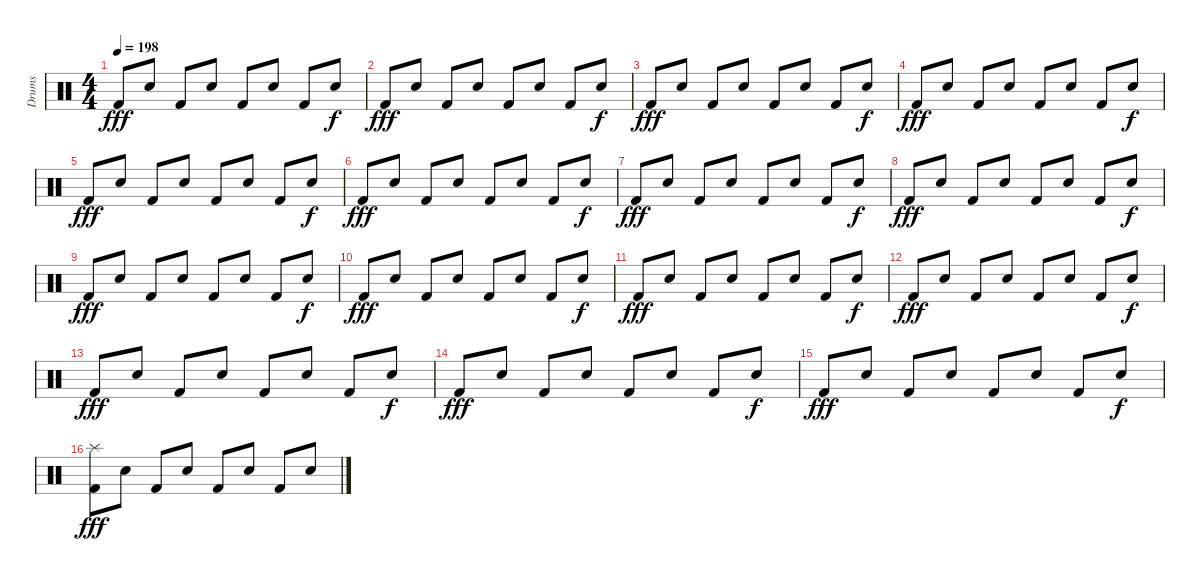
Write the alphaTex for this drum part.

\track ("Drums" "Drums") {instrument percussion}
\staff {score}
\articulation defaults
\ts (4 4)
\tempo 198
\clef neutral
\ks c "Kick (hit) 2".8{dy fff} "Snare (hit) 2".8 "Kick (hit) 2".8 "Snare (hit) 2".8 "Kick (hit) 2".8 "Snare (hit) 2".8 "Kick (hit) 2".8 "Snare (hit) 2".8{dy f}
|
"Kick (hit) 2".8{dy fff} "Snare (hit) 2".8 "Kick (hit) 2".8 "Snare (hit) 2".8 "Kick (hit) 2".8 "Snare (hit) 2".8 "Kick (hit) 2".8 "Snare (hit) 2".8{dy f} |
"Kick (hit) 2".8{dy fff} "Snare (hit) 2".8 "Kick (hit) 2".8 "Snare (hit) 2".8 "Kick (hit) 2".8 "Snare (hit) 2".8 "Kick (hit) 2".8 "Snare (hit) 2".8{dy f} |
"Kick (hit) 2".8{dy fff} "Snare (hit) 2".8 "Kick (hit) 2".8 "Snare (hit) 2".8 "Kick (hit) 2".8 "Snare (hit) 2".8 "Kick (hit) 2".8 "Snare (hit) 2".8{dy f} |
"Kick (hit) 2".8{dy fff} "Snare (hit) 2".8 "Kick (hit) 2".8 "Snare (hit) 2".8 "Kick (hit) 2".8 "Snare (hit) 2".8 "Kick (hit) 2".8 "Snare (hit) 2".8{dy f} |
"Kick (hit) 2".8{dy fff} "Snare (hit) 2".8 "Kick (hit) 2".8 "Snare (hit) 2".8 "Kick (hit) 2".8 "Snare (hit) 2".8 "Kick (hit) 2".8 "Snare (hit) 2".8{dy f} |
"Kick (hit) 2".8{dy fff} "Snare (hit) 2".8 "Kick (hit) 2".8 "Snare (hit) 2".8 "Kick (hit) 2".8 "Snare (hit) 2".8 "Kick (hit) 2".8 "Snare (hit) 2".8{dy f} |
"Kick (hit) 2".8{dy fff} "Snare (hit) 2".8 "Kick (hit) 2".8 "Snare (hit) 2".8 "Kick (hit) 2".8 "Snare (hit) 2".8 "Kick (hit) 2".8 "Snare (hit) 2".8{dy f} |
"Kick (hit) 2".8{dy fff} "Snare (hit) 2".8 "Kick (hit) 2".8 "Snare (hit) 2".8 "Kick (hit) 2".8 "Snare (hit) 2".8 "Kick (hit) 2".8 "Snare (hit) 2".8{dy f} |
"Kick (hit) 2".8{dy fff} "Snare (hit) 2".8 "Kick (hit) 2".8 "Snare (hit) 2".8 "Kick (hit) 2".8 "Snare (hit) 2".8 "Kick (hit) 2".8 "Snare (hit) 2".8{dy f} |
"Kick (hit) 2".8{dy fff} "Snare (hit) 2".8 "Kick (hit) 2".8 "Snare (hit) 2".8 "Kick (hit) 2".8 "Snare (hit) 2".8 "Kick (hit) 2".8 "Snare (hit) 2".8{dy f} |
"Kick (hit) 2".8{dy fff} "Snare (hit) 2".8 "Kick (hit) 2".8 "Snare (hit) 2".8 "Kick (hit) 2".8 "Snare (hit) 2".8 "Kick (hit) 2".8 "Snare (hit) 2".8{dy f} |
"Kick (hit) 2".8{dy fff} "Snare (hit) 2".8 "Kick (hit) 2".8 "Snare (hit) 2".8 "Kick (hit) 2".8 "Snare (hit) 2".8 "Kick (hit) 2".8 "Snare (hit) 2".8{dy f} |
"Kick (hit) 2".8{dy fff} "Snare (hit) 2".8 "Kick (hit) 2".8 "Snare (hit) 2".8 "Kick (hit) 2".8 "Snare (hit) 2".8 "Kick (hit) 2".8 "Snare (hit) 2".8{dy f} |
"Kick (hit) 2".8{dy fff} "Snare (hit) 2".8 "Kick (hit) 2".8 "Snare (hit) 2".8 "Kick (hit) 2".8 "Snare (hit) 2".8 "Kick (hit) 2".8 "Snare (hit) 2".8{dy f} |
("Splash (hit)" "Kick (hit) 2").8{dy fff} "Snare (hit) 2".8 "Kick (hit) 2".8 "Snare (hit) 2".8 "Kick (hit) 2".8 "Snare (hit) 2".8 "Kick (hit) 2".8 "Snare (hit) 2".8
